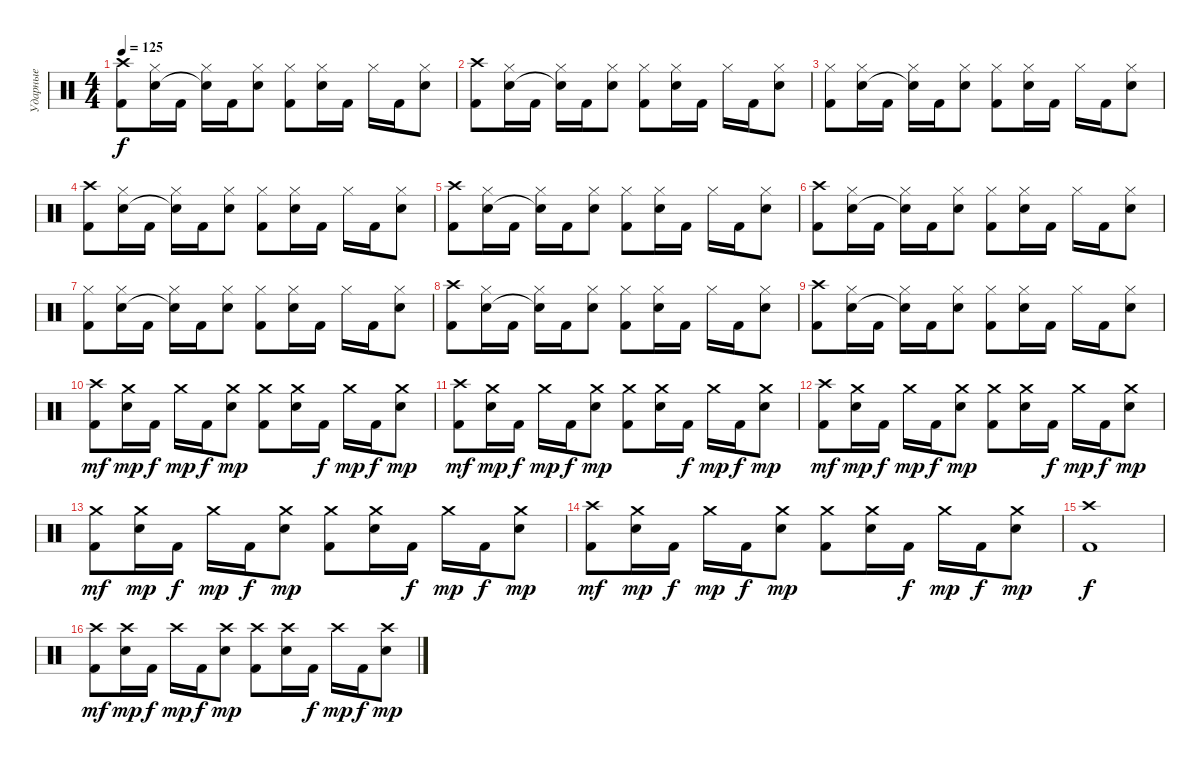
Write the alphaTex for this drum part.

\track ("Ударные" "Ударные") {instrument percussion}
\staff {score}
\articulation defaults
\ts (4 4)
\tempo 125
\clef neutral
\ks c
("Crash high (hit)" "Kick (hit) 2").8{dy f} ("Hi-Hat (closed)" "Electric Snare (hit)").16 "Kick (hit) 2".16 ("Hi-Hat (closed)" "Snare (hit)"{t}).16 "Kick (hit) 2".16 ("Hi-Hat (closed)" "Electric Snare (hit)").8 ("Hi-Hat (closed)" "Kick (hit) 2").8 ("Hi-Hat (closed)" "Electric Snare (hit)").16 "Kick (hit) 2".16 "Hi-Hat (closed)".16 "Kick (hit) 2".16 ("Hi-Hat (closed)" "Electric Snare (hit)").8 |
("Crash high (hit)" "Kick (hit) 2").8 ("Hi-Hat (closed)" "Electric Snare (hit)").16 "Kick (hit) 2".16 ("Hi-Hat (closed)" "Snare (hit)"{t}).16 "Kick (hit) 2".16 ("Hi-Hat (closed)" "Electric Snare (hit)").8 ("Hi-Hat (closed)" "Kick (hit) 2").8 ("Hi-Hat (closed)" "Electric Snare (hit)").16 "Kick (hit) 2".16 "Hi-Hat (closed)".16 "Kick (hit) 2".16 ("Hi-Hat (closed)" "Electric Snare (hit)").8 |
("Hi-Hat (closed)" "Kick (hit) 2").8 ("Hi-Hat (closed)" "Electric Snare (hit)").16 "Kick (hit) 2".16 ("Hi-Hat (closed)" "Snare (hit)"{t}).16 "Kick (hit) 2".16 ("Hi-Hat (closed)" "Electric Snare (hit)").8 ("Hi-Hat (closed)" "Kick (hit) 2").8 ("Hi-Hat (closed)" "Electric Snare (hit)").16 "Kick (hit) 2".16 "Hi-Hat (closed)".16 "Kick (hit) 2".16 ("Hi-Hat (closed)" "Electric Snare (hit)").8 |
("Crash high (hit)" "Kick (hit) 2").8 ("Hi-Hat (closed)" "Electric Snare (hit)").16 "Kick (hit) 2".16 ("Hi-Hat (closed)" "Snare (hit)"{t}).16 "Kick (hit) 2".16 ("Hi-Hat (closed)" "Electric Snare (hit)").8 ("Hi-Hat (closed)" "Kick (hit) 2").8 ("Hi-Hat (closed)" "Electric Snare (hit)").16 "Kick (hit) 2".16 "Hi-Hat (closed)".16 "Kick (hit) 2".16 ("Hi-Hat (closed)" "Electric Snare (hit)").8 |
("Crash high (hit)" "Kick (hit) 2").8 ("Hi-Hat (closed)" "Electric Snare (hit)").16 "Kick (hit) 2".16 ("Hi-Hat (closed)" "Snare (hit)"{t}).16 "Kick (hit) 2".16 ("Hi-Hat (closed)" "Electric Snare (hit)").8 ("Hi-Hat (closed)" "Kick (hit) 2").8 ("Hi-Hat (closed)" "Electric Snare (hit)").16 "Kick (hit) 2".16 "Hi-Hat (closed)".16 "Kick (hit) 2".16 ("Hi-Hat (closed)" "Electric Snare (hit)").8 |
("Crash high (hit)" "Kick (hit) 2").8 ("Hi-Hat (closed)" "Electric Snare (hit)").16 "Kick (hit) 2".16 ("Hi-Hat (closed)" "Snare (hit)"{t}).16 "Kick (hit) 2".16 ("Hi-Hat (closed)" "Electric Snare (hit)").8 ("Hi-Hat (closed)" "Kick (hit) 2").8 ("Hi-Hat (closed)" "Electric Snare (hit)").16 "Kick (hit) 2".16 "Hi-Hat (closed)".16 "Kick (hit) 2".16 ("Hi-Hat (closed)" "Electric Snare (hit)").8 |
("Hi-Hat (closed)" "Kick (hit) 2").8 ("Hi-Hat (closed)" "Electric Snare (hit)").16 "Kick (hit) 2".16 ("Hi-Hat (closed)" "Snare (hit)"{t}).16 "Kick (hit) 2".16 ("Hi-Hat (closed)" "Electric Snare (hit)").8 ("Hi-Hat (closed)" "Kick (hit) 2").8 ("Hi-Hat (closed)" "Electric Snare (hit)").16 "Kick (hit) 2".16 "Hi-Hat (closed)".16 "Kick (hit) 2".16 ("Hi-Hat (closed)" "Electric Snare (hit)").8 |
("Crash high (hit)" "Kick (hit) 2").8 ("Hi-Hat (closed)" "Electric Snare (hit)").16 "Kick (hit) 2".16 ("Hi-Hat (closed)" "Snare (hit)"{t}).16 "Kick (hit) 2".16 ("Hi-Hat (closed)" "Electric Snare (hit)").8 ("Hi-Hat (closed)" "Kick (hit) 2").8 ("Hi-Hat (closed)" "Electric Snare (hit)").16 "Kick (hit) 2".16 "Hi-Hat (closed)".16 "Kick (hit) 2".16 ("Hi-Hat (closed)" "Electric Snare (hit)").8 |
("Crash high (hit)" "Kick (hit) 2").8 ("Hi-Hat (closed)" "Electric Snare (hit)").16 "Kick (hit) 2".16 ("Hi-Hat (closed)" "Snare (hit)"{t}).16 "Kick (hit) 2".16 ("Hi-Hat (closed)" "Electric Snare (hit)").8 ("Hi-Hat (closed)" "Kick (hit) 2").8 ("Hi-Hat (closed)" "Electric Snare (hit)").16 "Kick (hit) 2".16 "Hi-Hat (closed)".16 "Kick (hit) 2".16 ("Hi-Hat (closed)" "Electric Snare (hit)").8 |
("Crash high (hit)" "Kick (hit) 2").8{dy mf} ("Crash medium (hit)" "Electric Snare (hit)").16{dy mp} "Kick (hit) 2".16{dy f} "Crash medium (hit)".16{dy mp} "Kick (hit) 2".16{dy f} ("Crash medium (hit)" "Electric Snare (hit)").8{dy mp} ("Crash medium (hit)" "Kick (hit) 2").8 ("Crash medium (hit)" "Electric Snare (hit)").16 "Kick (hit) 2".16{dy f} "Crash medium (hit)".16{dy mp} "Kick (hit) 2".16{dy f} ("Crash medium (hit)" "Electric Snare (hit)").8{dy mp} |
("Crash high (hit)" "Kick (hit) 2").8{dy mf} ("Crash medium (hit)" "Electric Snare (hit)").16{dy mp} "Kick (hit) 2".16{dy f} "Crash medium (hit)".16{dy mp} "Kick (hit) 2".16{dy f} ("Crash medium (hit)" "Electric Snare (hit)").8{dy mp} ("Crash medium (hit)" "Kick (hit) 2").8 ("Crash medium (hit)" "Electric Snare (hit)").16 "Kick (hit) 2".16{dy f} "Crash medium (hit)".16{dy mp} "Kick (hit) 2".16{dy f} ("Crash medium (hit)" "Electric Snare (hit)").8{dy mp} |
("Crash high (hit)" "Kick (hit) 2").8{dy mf} ("Crash medium (hit)" "Electric Snare (hit)").16{dy mp} "Kick (hit) 2".16{dy f} "Crash medium (hit)".16{dy mp} "Kick (hit) 2".16{dy f} ("Crash medium (hit)" "Electric Snare (hit)").8{dy mp} ("Crash medium (hit)" "Kick (hit) 2").8 ("Crash medium (hit)" "Electric Snare (hit)").16 "Kick (hit) 2".16{dy f} "Crash medium (hit)".16{dy mp} "Kick (hit) 2".16{dy f} ("Crash medium (hit)" "Electric Snare (hit)").8{dy mp} |
("Crash medium (hit)" "Kick (hit) 2").8{dy mf} ("Crash medium (hit)" "Electric Snare (hit)").16{dy mp} "Kick (hit) 2".16{dy f} "Crash medium (hit)".16{dy mp} "Kick (hit) 2".16{dy f} ("Crash medium (hit)" "Electric Snare (hit)").8{dy mp} ("Crash medium (hit)" "Kick (hit) 2").8 ("Crash medium (hit)" "Electric Snare (hit)").16 "Kick (hit) 2".16{dy f} "Crash medium (hit)".16{dy mp} "Kick (hit) 2".16{dy f} ("Crash medium (hit)" "Electric Snare (hit)").8{dy mp} |
("Crash high (hit)" "Kick (hit) 2").8{dy mf} ("Crash medium (hit)" "Electric Snare (hit)").16{dy mp} "Kick (hit) 2".16{dy f} "Crash medium (hit)".16{dy mp} "Kick (hit) 2".16{dy f} ("Crash medium (hit)" "Electric Snare (hit)").8{dy mp} ("Crash medium (hit)" "Kick (hit) 2").8 ("Crash medium (hit)" "Electric Snare (hit)").16 "Kick (hit) 2".16{dy f} "Crash medium (hit)".16{dy mp} "Kick (hit) 2".16{dy f} ("Crash medium (hit)" "Electric Snare (hit)").8{dy mp} |
("Crash high (hit)" "Kick (hit) 2").1{dy f} |
("Crash high (hit)" "Kick (hit) 2").8{dy mf} ("Crash high (hit)" "Electric Snare (hit)").16{dy mp} "Kick (hit) 2".16{dy f} "Crash high (hit)".16{dy mp} "Kick (hit) 2".16{dy f} ("Crash high (hit)" "Electric Snare (hit)").8{dy mp} ("Crash high (hit)" "Kick (hit) 2").8 ("Crash high (hit)" "Electric Snare (hit)").16 "Kick (hit) 2".16{dy f} "Crash high (hit)".16{dy mp} "Kick (hit) 2".16{dy f} ("Crash high (hit)" "Electric Snare (hit)").8{dy mp}
